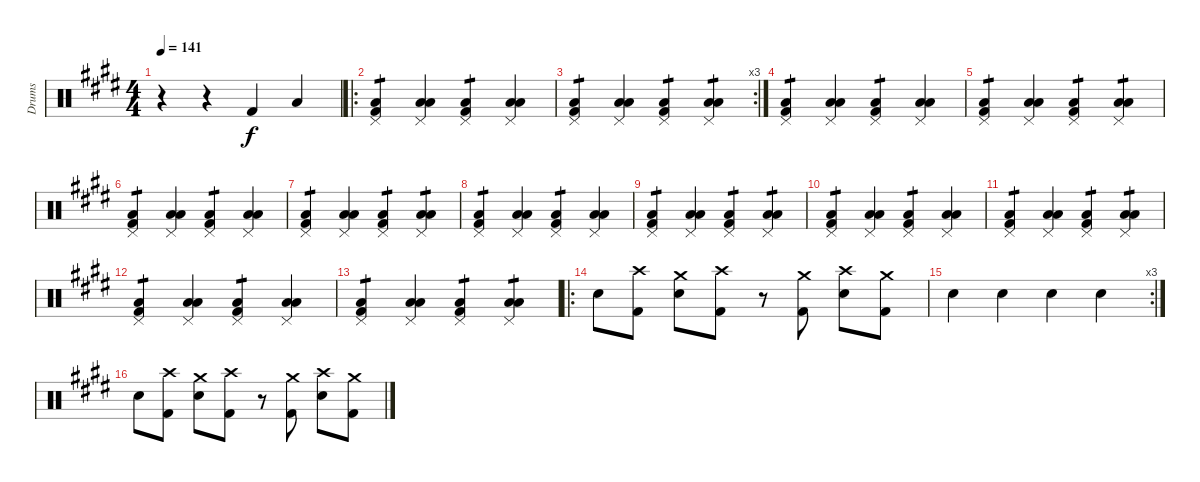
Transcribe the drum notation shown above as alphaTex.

\track ("Drums" "Drums") {instrument percussion}
\staff {score}
\articulation defaults
\ts (4 4)
\tempo 141
\clef neutral
\ks e
r.4{dy f} r.4 "Kick (hit) 2".4 "Low Floor Tom (hit)".4 |
\ro
("Kick (hit) 2" "Pedal Hi-Hat (hit)" "Low Floor Tom (hit)").4{tp 1} ("Low Floor Tom (hit)" "Pedal Hi-Hat (hit)" "Low Floor Tom (hit)").4 ("Kick (hit) 2" "Pedal Hi-Hat (hit)" "Low Floor Tom (hit)").4{tp 1} ("Low Floor Tom (hit)" "Pedal Hi-Hat (hit)" "Low Floor Tom (hit)").4 |
\rc 3
("Kick (hit) 2" "Pedal Hi-Hat (hit)" "Low Floor Tom (hit)").4{tp 1} ("Low Floor Tom (hit)" "Pedal Hi-Hat (hit)" "Low Floor Tom (hit)").4 ("Kick (hit) 2" "Pedal Hi-Hat (hit)" "Low Floor Tom (hit)").4{tp 1} ("Low Floor Tom (hit)" "Pedal Hi-Hat (hit)" "Low Floor Tom (hit)").4{tp 1} |
("Kick (hit) 2" "Pedal Hi-Hat (hit)" "Low Floor Tom (hit)").4{tp 1} ("Low Floor Tom (hit)" "Pedal Hi-Hat (hit)" "Low Floor Tom (hit)").4 ("Kick (hit) 2" "Pedal Hi-Hat (hit)" "Low Floor Tom (hit)").4{tp 1} ("Low Floor Tom (hit)" "Pedal Hi-Hat (hit)" "Low Floor Tom (hit)").4 |
("Kick (hit) 2" "Pedal Hi-Hat (hit)" "Low Floor Tom (hit)").4{tp 1} ("Low Floor Tom (hit)" "Pedal Hi-Hat (hit)" "Low Floor Tom (hit)").4 ("Kick (hit) 2" "Pedal Hi-Hat (hit)" "Low Floor Tom (hit)").4{tp 1} ("Low Floor Tom (hit)" "Pedal Hi-Hat (hit)" "Low Floor Tom (hit)").4{tp 1} |
("Kick (hit) 2" "Pedal Hi-Hat (hit)" "Low Floor Tom (hit)").4{tp 1} ("Low Floor Tom (hit)" "Pedal Hi-Hat (hit)" "Low Floor Tom (hit)").4 ("Kick (hit) 2" "Pedal Hi-Hat (hit)" "Low Floor Tom (hit)").4{tp 1} ("Low Floor Tom (hit)" "Pedal Hi-Hat (hit)" "Low Floor Tom (hit)").4 |
("Kick (hit) 2" "Pedal Hi-Hat (hit)" "Low Floor Tom (hit)").4{tp 1} ("Low Floor Tom (hit)" "Pedal Hi-Hat (hit)" "Low Floor Tom (hit)").4 ("Kick (hit) 2" "Pedal Hi-Hat (hit)" "Low Floor Tom (hit)").4{tp 1} ("Low Floor Tom (hit)" "Pedal Hi-Hat (hit)" "Low Floor Tom (hit)").4{tp 1} |
("Kick (hit) 2" "Pedal Hi-Hat (hit)" "Low Floor Tom (hit)").4{tp 1} ("Low Floor Tom (hit)" "Pedal Hi-Hat (hit)" "Low Floor Tom (hit)").4 ("Kick (hit) 2" "Pedal Hi-Hat (hit)" "Low Floor Tom (hit)").4{tp 1} ("Low Floor Tom (hit)" "Pedal Hi-Hat (hit)" "Low Floor Tom (hit)").4 |
("Kick (hit) 2" "Pedal Hi-Hat (hit)" "Low Floor Tom (hit)").4{tp 1} ("Low Floor Tom (hit)" "Pedal Hi-Hat (hit)" "Low Floor Tom (hit)").4 ("Kick (hit) 2" "Pedal Hi-Hat (hit)" "Low Floor Tom (hit)").4{tp 1} ("Low Floor Tom (hit)" "Pedal Hi-Hat (hit)" "Low Floor Tom (hit)").4{tp 1} |
("Kick (hit) 2" "Pedal Hi-Hat (hit)" "Low Floor Tom (hit)").4{tp 1} ("Low Floor Tom (hit)" "Pedal Hi-Hat (hit)" "Low Floor Tom (hit)").4 ("Kick (hit) 2" "Pedal Hi-Hat (hit)" "Low Floor Tom (hit)").4{tp 1} ("Low Floor Tom (hit)" "Pedal Hi-Hat (hit)" "Low Floor Tom (hit)").4 |
("Kick (hit) 2" "Pedal Hi-Hat (hit)" "Low Floor Tom (hit)").4{tp 1} ("Low Floor Tom (hit)" "Pedal Hi-Hat (hit)" "Low Floor Tom (hit)").4 ("Kick (hit) 2" "Pedal Hi-Hat (hit)" "Low Floor Tom (hit)").4{tp 1} ("Low Floor Tom (hit)" "Pedal Hi-Hat (hit)" "Low Floor Tom (hit)").4{tp 1} |
("Kick (hit) 2" "Pedal Hi-Hat (hit)" "Low Floor Tom (hit)").4{tp 1} ("Low Floor Tom (hit)" "Pedal Hi-Hat (hit)" "Low Floor Tom (hit)").4 ("Kick (hit) 2" "Pedal Hi-Hat (hit)" "Low Floor Tom (hit)").4{tp 1} ("Low Floor Tom (hit)" "Pedal Hi-Hat (hit)" "Low Floor Tom (hit)").4 |
("Kick (hit) 2" "Pedal Hi-Hat (hit)" "Low Floor Tom (hit)").4{tp 1} ("Low Floor Tom (hit)" "Pedal Hi-Hat (hit)" "Low Floor Tom (hit)").4 ("Kick (hit) 2" "Pedal Hi-Hat (hit)" "Low Floor Tom (hit)").4{tp 1} ("Low Floor Tom (hit)" "Pedal Hi-Hat (hit)" "Low Floor Tom (hit)").4{tp 1} |
\ro "Snare (hit) 2".8
("Kick (hit) 2" "Crash high (hit)").8 ("Snare (hit) 2" "Crash medium (hit)").8 ("Kick (hit) 2" "Crash high (hit)").8 r.8 ("Kick (hit) 2" "Crash medium (hit)").8 ("Snare (hit) 2" "Crash high (hit)").8 ("Kick (hit) 2" "Crash medium (hit)").8 |
\rc 3 "Snare (hit) 2".4 "Snare (hit) 2".4 "Snare (hit) 2".4 "Snare (hit) 2".4
|
"Snare (hit) 2".8 ("Kick (hit) 2" "Crash high (hit)").8 ("Snare (hit) 2" "Crash medium (hit)").8 ("Kick (hit) 2" "Crash high (hit)").8 r.8 ("Kick (hit) 2" "Crash medium (hit)").8 ("Snare (hit) 2" "Crash high (hit)").8 ("Kick (hit) 2" "Crash medium (hit)").8
